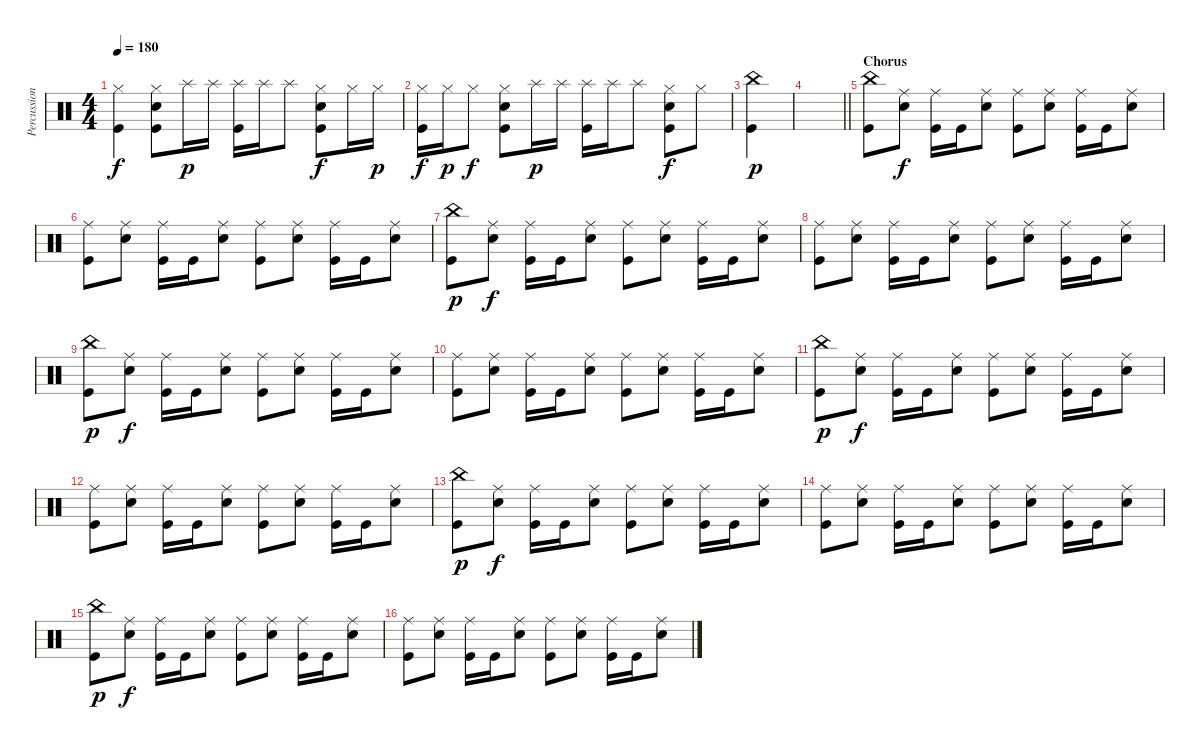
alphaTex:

\track ("Percussion" "Percussion") {instrument percussion}
\staff {score}
\articulation defaults
\ts (4 4)
\tempo 180
\clef neutral
\ks c
("Hi-Hat (closed)" "Kick (hit)").4{dy f} ("Hi-Hat (closed)" "Snare (hit) 2" "Kick (hit)").8 "Splash (hit)".16{dy p} "Splash (hit)".16 ("Splash (hit)" "Kick (hit)").16 "Splash (hit)".16 "Splash (hit)".8 ("Hi-Hat (closed)" "Snare (hit) 2" "Kick (hit)").8{dy f} "Hi-Hat (closed)".16 "Hi-Hat (closed)".16{dy p} |
("Hi-Hat (closed)" "Kick (hit)").16{dy f} "Hi-Hat (closed)".16{dy p} "Hi-Hat (closed)".8{dy f} ("Hi-Hat (closed)" "Snare (hit) 2" "Kick (hit)").8 "Splash (hit)".16{dy p} "Splash (hit)".16 ("Splash (hit)" "Kick (hit)").16 "Splash (hit)".16 "Splash (hit)".8 ("Hi-Hat (closed)" "Snare (hit) 2" "Kick (hit)").8{dy f} "Hi-Hat (closed)".8 |
("China (hit)" "Kick (hit)").4{dy p} |
\barLineRight lightlight
|
\section ("" "Chorus")
("China (hit)" "Kick (hit)").8 ("Ride (middle)" "Snare (hit) 2").8{dy f} ("Ride (middle)" "Kick (hit)").16 "Kick (hit)".16 ("Ride (middle)" "Snare (hit) 2").8 ("Ride (middle)" "Kick (hit)").8 ("Ride (middle)" "Snare (hit) 2").8 ("Ride (middle)" "Kick (hit)").16 "Kick (hit)".16 ("Ride (middle)" "Snare (hit) 2").8 |
("Ride (middle)" "Kick (hit)").8 ("Ride (middle)" "Snare (hit) 2").8 ("Ride (middle)" "Kick (hit)").16 "Kick (hit)".16 ("Ride (middle)" "Snare (hit) 2").8 ("Ride (middle)" "Kick (hit)").8 ("Ride (middle)" "Snare (hit) 2").8 ("Ride (middle)" "Kick (hit)").16 "Kick (hit)".16 ("Ride (middle)" "Snare (hit) 2").8 |
("China (hit)" "Kick (hit)").8{dy p} ("Ride (middle)" "Snare (hit) 2").8{dy f} ("Ride (middle)" "Kick (hit)").16 "Kick (hit)".16 ("Ride (middle)" "Snare (hit) 2").8 ("Ride (middle)" "Kick (hit)").8 ("Ride (middle)" "Snare (hit) 2").8 ("Ride (middle)" "Kick (hit)").16 "Kick (hit)".16 ("Ride (middle)" "Snare (hit) 2").8 |
("Ride (middle)" "Kick (hit)").8 ("Ride (middle)" "Snare (hit) 2").8 ("Ride (middle)" "Kick (hit)").16 "Kick (hit)".16 ("Ride (middle)" "Snare (hit) 2").8 ("Ride (middle)" "Kick (hit)").8 ("Ride (middle)" "Snare (hit) 2").8 ("Ride (middle)" "Kick (hit)").16 "Kick (hit)".16 ("Ride (middle)" "Snare (hit) 2").8 |
("China (hit)" "Kick (hit)").8{dy p} ("Ride (middle)" "Snare (hit) 2").8{dy f} ("Ride (middle)" "Kick (hit)").16 "Kick (hit)".16 ("Ride (middle)" "Snare (hit) 2").8 ("Ride (middle)" "Kick (hit)").8 ("Ride (middle)" "Snare (hit) 2").8 ("Ride (middle)" "Kick (hit)").16 "Kick (hit)".16 ("Ride (middle)" "Snare (hit) 2").8 |
("Ride (middle)" "Kick (hit)").8 ("Ride (middle)" "Snare (hit) 2").8 ("Ride (middle)" "Kick (hit)").16 "Kick (hit)".16 ("Ride (middle)" "Snare (hit) 2").8 ("Ride (middle)" "Kick (hit)").8 ("Ride (middle)" "Snare (hit) 2").8 ("Ride (middle)" "Kick (hit)").16 "Kick (hit)".16 ("Ride (middle)" "Snare (hit) 2").8 |
("China (hit)" "Kick (hit)").8{dy p} ("Ride (middle)" "Snare (hit) 2").8{dy f} ("Ride (middle)" "Kick (hit)").16 "Kick (hit)".16 ("Ride (middle)" "Snare (hit) 2").8 ("Ride (middle)" "Kick (hit)").8 ("Ride (middle)" "Snare (hit) 2").8 ("Ride (middle)" "Kick (hit)").16 "Kick (hit)".16 ("Ride (middle)" "Snare (hit) 2").8 |
("Ride (middle)" "Kick (hit)").8 ("Ride (middle)" "Snare (hit) 2").8 ("Ride (middle)" "Kick (hit)").16 "Kick (hit)".16 ("Ride (middle)" "Snare (hit) 2").8 ("Ride (middle)" "Kick (hit)").8 ("Ride (middle)" "Snare (hit) 2").8 ("Ride (middle)" "Kick (hit)").16 "Kick (hit)".16 ("Ride (middle)" "Snare (hit) 2").8 |
("China (hit)" "Kick (hit)").8{dy p} ("Ride (middle)" "Snare (hit) 2").8{dy f} ("Ride (middle)" "Kick (hit)").16 "Kick (hit)".16 ("Ride (middle)" "Snare (hit) 2").8 ("Ride (middle)" "Kick (hit)").8 ("Ride (middle)" "Snare (hit) 2").8 ("Ride (middle)" "Kick (hit)").16 "Kick (hit)".16 ("Ride (middle)" "Snare (hit) 2").8 |
("Ride (middle)" "Kick (hit)").8 ("Ride (middle)" "Snare (hit) 2").8 ("Ride (middle)" "Kick (hit)").16 "Kick (hit)".16 ("Ride (middle)" "Snare (hit) 2").8 ("Ride (middle)" "Kick (hit)").8 ("Ride (middle)" "Snare (hit) 2").8 ("Ride (middle)" "Kick (hit)").16 "Kick (hit)".16 ("Ride (middle)" "Snare (hit) 2").8 |
("China (hit)" "Kick (hit)").8{dy p} ("Ride (middle)" "Snare (hit) 2").8{dy f} ("Ride (middle)" "Kick (hit)").16 "Kick (hit)".16 ("Ride (middle)" "Snare (hit) 2").8 ("Ride (middle)" "Kick (hit)").8 ("Ride (middle)" "Snare (hit) 2").8 ("Ride (middle)" "Kick (hit)").16 "Kick (hit)".16 ("Ride (middle)" "Snare (hit) 2").8 |
("Ride (middle)" "Kick (hit)").8 ("Ride (middle)" "Snare (hit) 2").8 ("Ride (middle)" "Kick (hit)").16 "Kick (hit)".16 ("Ride (middle)" "Snare (hit) 2").8 ("Ride (middle)" "Kick (hit)").8 ("Ride (middle)" "Snare (hit) 2").8 ("Ride (middle)" "Kick (hit)").16 "Kick (hit)".16 ("Ride (middle)" "Snare (hit) 2").8
